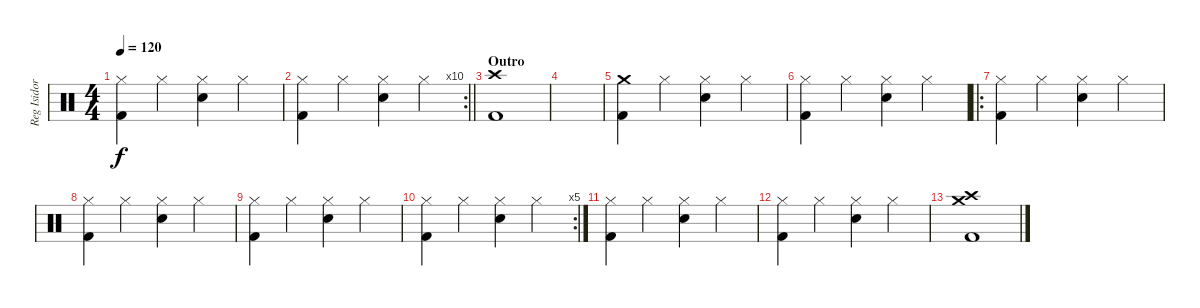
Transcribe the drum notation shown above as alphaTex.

\track ("Reg Isidor" "Reg Isidor") {instrument percussion}
\staff {score}
\articulation defaults
\ts (4 4)
\tempo 120
\clef neutral
\ks c
("Hi-Hat (closed)" "Kick (hit) 2").4{dy f} "Hi-Hat (closed)".4 ("Hi-Hat (closed)" "Snare (hit) 2").4 "Hi-Hat (closed)".4 |
\rc 10
\barLineRight lightlight
("Hi-Hat (closed)" "Kick (hit) 2").4 "Hi-Hat (closed)".4 ("Hi-Hat (closed)" "Snare (hit) 2").4 "Hi-Hat (closed)".4 |
\section ("" "Outro")
("Crash high (hit)" "Kick (hit) 2").1 |
|
("Crash medium (hit)" "Kick (hit) 2").4 "Hi-Hat (closed)".4 ("Hi-Hat (closed)" "Snare (hit) 2").4 "Hi-Hat (closed)".4 |
("Hi-Hat (closed)" "Kick (hit) 2").4 "Hi-Hat (closed)".4 ("Hi-Hat (closed)" "Snare (hit) 2").4 "Hi-Hat (closed)".4 |
\ro
("Hi-Hat (closed)" "Kick (hit) 2").4 "Hi-Hat (closed)".4 ("Hi-Hat (closed)" "Snare (hit) 2").4 "Hi-Hat (closed)".4 |
("Hi-Hat (closed)" "Kick (hit) 2").4 "Hi-Hat (closed)".4 ("Hi-Hat (closed)" "Snare (hit) 2").4 "Hi-Hat (closed)".4 |
("Hi-Hat (closed)" "Kick (hit) 2").4 "Hi-Hat (closed)".4 ("Hi-Hat (closed)" "Snare (hit) 2").4 "Hi-Hat (closed)".4 |
\rc 5
("Hi-Hat (closed)" "Kick (hit) 2").4 "Hi-Hat (closed)".4 ("Hi-Hat (closed)" "Snare (hit) 2").4 "Hi-Hat (closed)".4 |
("Hi-Hat (closed)" "Kick (hit) 2").4 "Hi-Hat (closed)".4 ("Hi-Hat (closed)" "Snare (hit) 2").4 "Hi-Hat (closed)".4 |
("Hi-Hat (closed)" "Kick (hit) 2").4 "Hi-Hat (closed)".4 ("Hi-Hat (closed)" "Snare (hit) 2").4 "Hi-Hat (closed)".4 |
("Crash medium (hit)" "Crash high (hit)" "Kick (hit) 2").1
